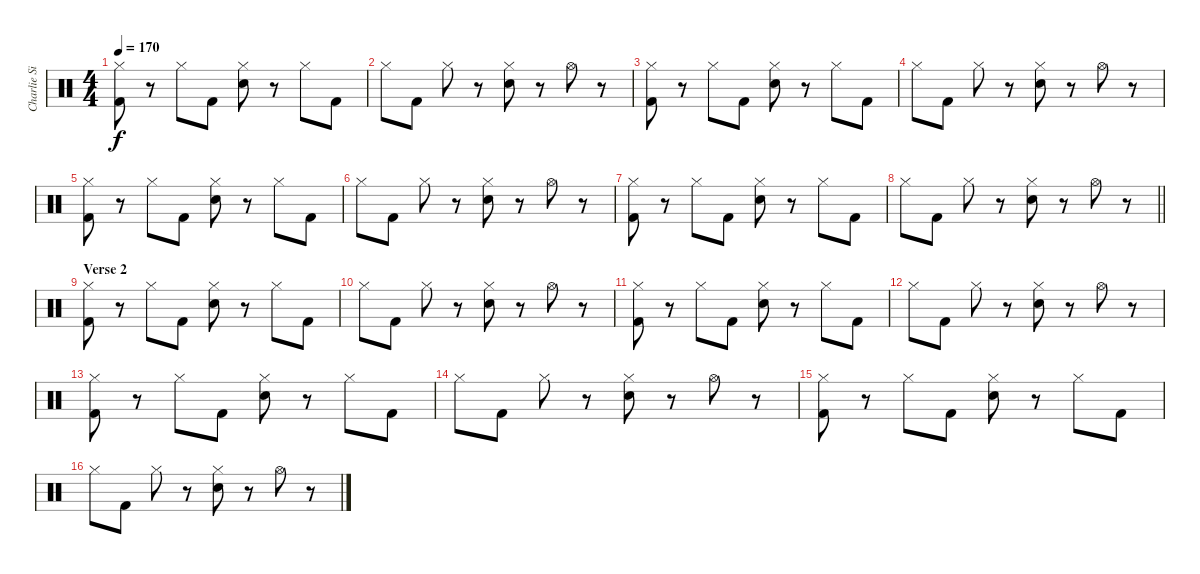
\track ("Charlie Simpson (Drums)" "Charlie Si") {instrument percussion}
\staff {score}
\articulation defaults
\ts (4 4)
\tempo 170
\clef neutral
\ks c
("Hi-Hat (closed)" "Kick (hit) 2").8{dy f} r.8 "Hi-Hat (closed)".8 "Kick (hit) 2".8 ("Hi-Hat (closed)" "Snare (hit) 2").8 r.8 "Hi-Hat (closed)".8 "Kick (hit) 2".8 |
"Hi-Hat (closed)".8 "Kick (hit) 2".8 "Hi-Hat (closed)".8 r.8 ("Hi-Hat (closed)" "Snare (hit) 2").8 r.8 "Hi-Hat (open)".8 r.8 |
("Hi-Hat (closed)" "Kick (hit) 2").8 r.8 "Hi-Hat (closed)".8 "Kick (hit) 2".8 ("Hi-Hat (closed)" "Snare (hit) 2").8 r.8 "Hi-Hat (closed)".8 "Kick (hit) 2".8 |
"Hi-Hat (closed)".8 "Kick (hit) 2".8 "Hi-Hat (closed)".8 r.8 ("Hi-Hat (closed)" "Snare (hit) 2").8 r.8 "Hi-Hat (open)".8 r.8 |
("Hi-Hat (closed)" "Kick (hit) 2").8 r.8 "Hi-Hat (closed)".8 "Kick (hit) 2".8 ("Hi-Hat (closed)" "Snare (hit) 2").8 r.8 "Hi-Hat (closed)".8 "Kick (hit) 2".8 |
"Hi-Hat (closed)".8 "Kick (hit) 2".8 "Hi-Hat (closed)".8 r.8 ("Hi-Hat (closed)" "Snare (hit) 2").8 r.8 "Hi-Hat (open)".8 r.8 |
("Hi-Hat (closed)" "Kick (hit) 2").8 r.8 "Hi-Hat (closed)".8 "Kick (hit) 2".8 ("Hi-Hat (closed)" "Snare (hit) 2").8 r.8 "Hi-Hat (closed)".8 "Kick (hit) 2".8 |
\barLineRight lightlight "Hi-Hat (closed)".8 "Kick (hit) 2".8 "Hi-Hat (closed)".8
r.8 ("Hi-Hat (closed)" "Snare (hit) 2").8 r.8 "Hi-Hat (open)".8 r.8 |
\section ("" "Verse 2")
("Hi-Hat (closed)" "Kick (hit) 2").8 r.8 "Hi-Hat (closed)".8 "Kick (hit) 2".8 ("Hi-Hat (closed)" "Snare (hit) 2").8 r.8 "Hi-Hat (closed)".8 "Kick (hit) 2".8 |
"Hi-Hat (closed)".8 "Kick (hit) 2".8 "Hi-Hat (closed)".8 r.8 ("Hi-Hat (closed)" "Snare (hit) 2").8 r.8 "Hi-Hat (open)".8 r.8 |
("Hi-Hat (closed)" "Kick (hit) 2").8 r.8 "Hi-Hat (closed)".8 "Kick (hit) 2".8 ("Hi-Hat (closed)" "Snare (hit) 2").8 r.8 "Hi-Hat (closed)".8 "Kick (hit) 2".8 |
"Hi-Hat (closed)".8 "Kick (hit) 2".8 "Hi-Hat (closed)".8 r.8 ("Hi-Hat (closed)" "Snare (hit) 2").8 r.8 "Hi-Hat (open)".8 r.8 |
("Hi-Hat (closed)" "Kick (hit) 2").8 r.8 "Hi-Hat (closed)".8 "Kick (hit) 2".8 ("Hi-Hat (closed)" "Snare (hit) 2").8 r.8 "Hi-Hat (closed)".8 "Kick (hit) 2".8 |
"Hi-Hat (closed)".8 "Kick (hit) 2".8 "Hi-Hat (closed)".8 r.8 ("Hi-Hat (closed)" "Snare (hit) 2").8 r.8 "Hi-Hat (open)".8 r.8 |
("Hi-Hat (closed)" "Kick (hit) 2").8 r.8 "Hi-Hat (closed)".8 "Kick (hit) 2".8 ("Hi-Hat (closed)" "Snare (hit) 2").8 r.8 "Hi-Hat (closed)".8 "Kick (hit) 2".8 |
"Hi-Hat (closed)".8 "Kick (hit) 2".8 "Hi-Hat (closed)".8 r.8 ("Hi-Hat (closed)" "Snare (hit) 2").8 r.8 "Hi-Hat (open)".8 r.8
